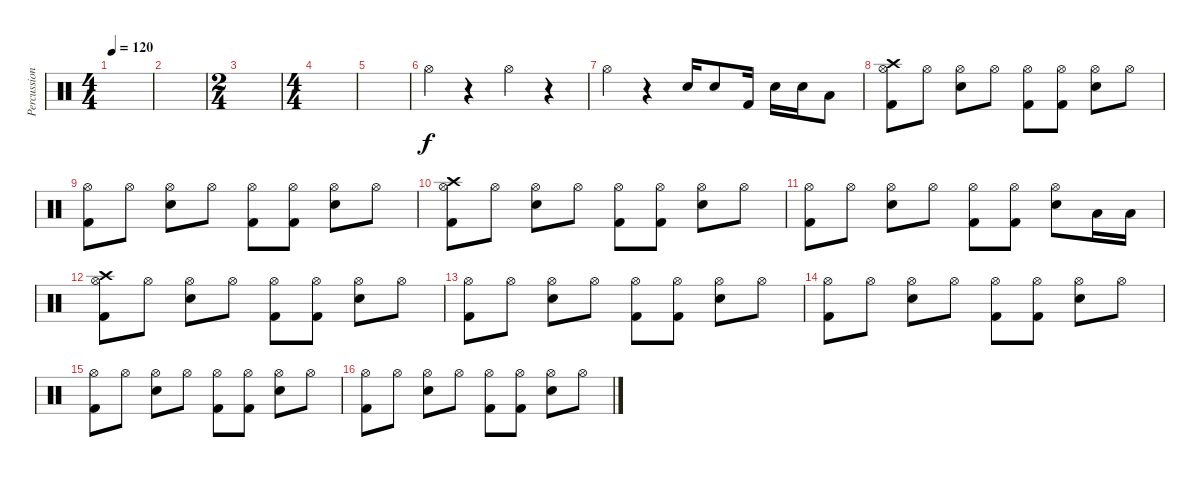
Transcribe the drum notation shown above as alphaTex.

\track ("Percussion" "Percussion") {instrument percussion}
\staff {score}
\articulation defaults
\ts (4 4)
\tempo 120
\clef neutral
\ks c
|
|
\ts (2 4)
|
\ts (4 4)
|
|
"Hi-Hat (open)".4 r.4 "Hi-Hat (open)".4 r.4 |
"Hi-Hat (open)".4 r.4 "Snare (hit) 2".16 "Snare (hit) 2".8 "Kick (hit) 2".16 "Snare (hit) 2".16 "Snare (hit) 2".16 "Low Floor Tom (hit)".8 |
("Hi-Hat (open)" "Kick (hit) 2" "Crash high (hit)").8 "Hi-Hat (open)".8 ("Hi-Hat (open)" "Snare (hit) 2").8 "Hi-Hat (open)".8 ("Hi-Hat (open)" "Kick (hit) 2").8 ("Hi-Hat (open)" "Kick (hit) 2").8 ("Hi-Hat (open)" "Snare (hit) 2").8 "Hi-Hat (open)".8 |
("Hi-Hat (open)" "Kick (hit) 2").8 "Hi-Hat (open)".8 ("Hi-Hat (open)" "Snare (hit) 2").8 "Hi-Hat (open)".8 ("Hi-Hat (open)" "Kick (hit) 2").8 ("Hi-Hat (open)" "Kick (hit) 2").8 ("Hi-Hat (open)" "Snare (hit) 2").8 "Hi-Hat (open)".8 |
("Hi-Hat (open)" "Kick (hit) 2" "Crash high (hit)").8 "Hi-Hat (open)".8 ("Hi-Hat (open)" "Snare (hit) 2").8 "Hi-Hat (open)".8 ("Hi-Hat (open)" "Kick (hit) 2").8 ("Hi-Hat (open)" "Kick (hit) 2").8 ("Hi-Hat (open)" "Snare (hit) 2").8 "Hi-Hat (open)".8 |
("Hi-Hat (open)" "Kick (hit) 2").8 "Hi-Hat (open)".8 ("Hi-Hat (open)" "Snare (hit) 2").8 "Hi-Hat (open)".8 ("Hi-Hat (open)" "Kick (hit) 2").8 ("Hi-Hat (open)" "Kick (hit) 2").8 ("Hi-Hat (open)" "Snare (hit) 2").8 "Low Floor Tom (hit)".16 "Low Floor Tom (hit)".16 |
("Hi-Hat (open)" "Kick (hit) 2" "Crash high (hit)").8 "Hi-Hat (open)".8 ("Hi-Hat (open)" "Snare (hit) 2").8 "Hi-Hat (open)".8 ("Hi-Hat (open)" "Kick (hit) 2").8 ("Hi-Hat (open)" "Kick (hit) 2").8 ("Hi-Hat (open)" "Snare (hit) 2").8 "Hi-Hat (open)".8 |
("Hi-Hat (open)" "Kick (hit) 2").8 "Hi-Hat (open)".8 ("Hi-Hat (open)" "Snare (hit) 2").8 "Hi-Hat (open)".8 ("Hi-Hat (open)" "Kick (hit) 2").8 ("Hi-Hat (open)" "Kick (hit) 2").8 ("Hi-Hat (open)" "Snare (hit) 2").8 "Hi-Hat (open)".8 |
("Hi-Hat (open)" "Kick (hit) 2").8 "Hi-Hat (open)".8 ("Hi-Hat (open)" "Snare (hit) 2").8 "Hi-Hat (open)".8 ("Hi-Hat (open)" "Kick (hit) 2").8 ("Hi-Hat (open)" "Kick (hit) 2").8 ("Hi-Hat (open)" "Snare (hit) 2").8 "Hi-Hat (open)".8 |
("Hi-Hat (open)" "Kick (hit) 2").8 "Hi-Hat (open)".8 ("Hi-Hat (open)" "Snare (hit) 2").8 "Hi-Hat (open)".8 ("Hi-Hat (open)" "Kick (hit) 2").8 ("Hi-Hat (open)" "Kick (hit) 2").8 ("Hi-Hat (open)" "Snare (hit) 2").8 "Hi-Hat (open)".8 |
("Hi-Hat (open)" "Kick (hit) 2").8 "Hi-Hat (open)".8 ("Hi-Hat (open)" "Snare (hit) 2").8 "Hi-Hat (open)".8 ("Hi-Hat (open)" "Kick (hit) 2").8 ("Hi-Hat (open)" "Kick (hit) 2").8 ("Hi-Hat (open)" "Snare (hit) 2").8 "Hi-Hat (open)".8
